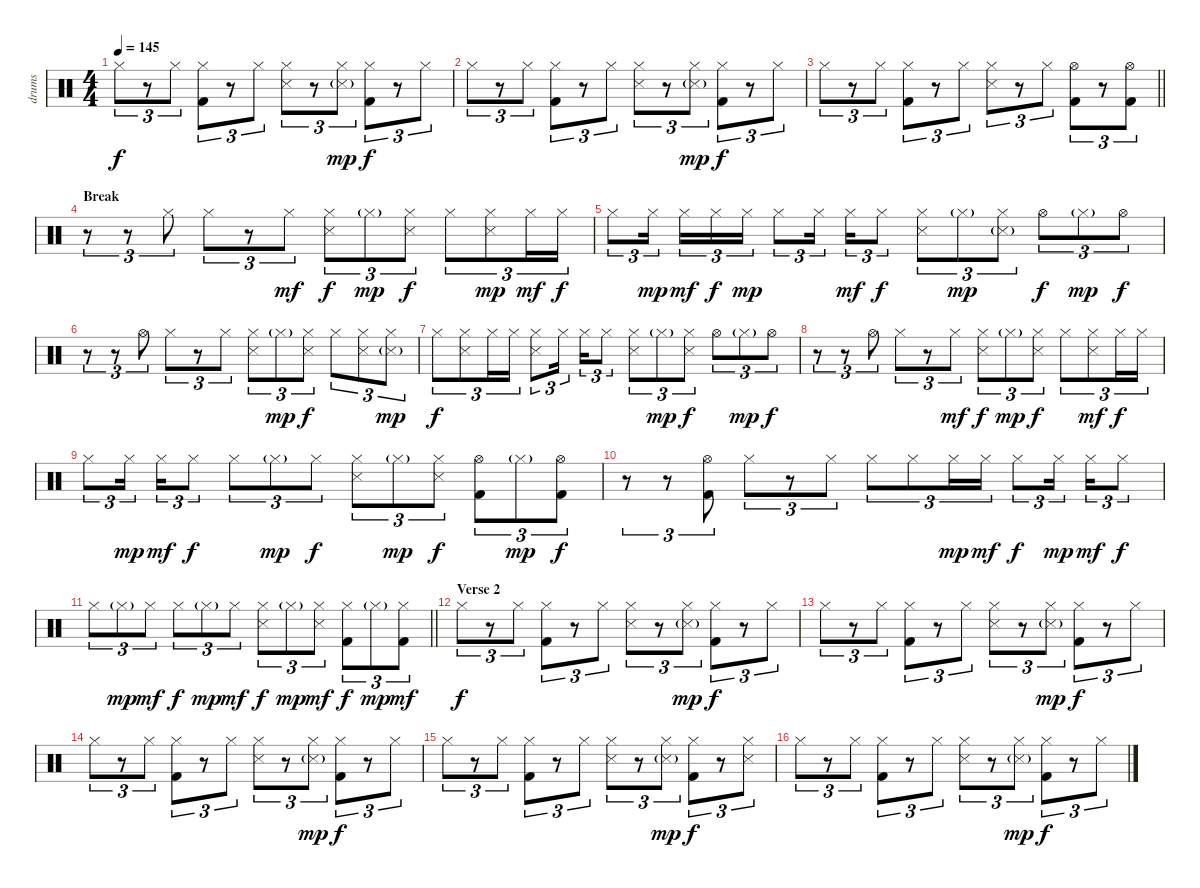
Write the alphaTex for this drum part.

\track ("drums" "drums") {instrument percussion}
\staff {score}
\articulation defaults
\ts (4 4)
\tempo 145
\clef neutral
\ks c "Hi-Hat (closed)".8{tu (3 2) dy f}
r.8{tu (3 2)} "Hi-Hat (closed)".8{tu (3 2)} ("Hi-Hat (closed)" "Kick (hit) 2").8{tu (3 2)} r.8{tu (3 2)} "Hi-Hat (closed)".8{tu (3 2)} ("Hi-Hat (closed)" "Snare (side stick) 3").8{tu (3 2)} r.8{tu (3 2)} ("Hi-Hat (closed)" "Snare (side stick) 3"{g}).8{tu (3 2) dy mp} ("Hi-Hat (closed)" "Kick (hit) 2").8{tu (3 2) dy f} r.8{tu (3 2)} "Hi-Hat (closed)".8{tu (3 2)} |
"Hi-Hat (closed)".8{tu (3 2)} r.8{tu (3 2)} "Hi-Hat (closed)".8{tu (3 2)} ("Hi-Hat (closed)" "Kick (hit) 2").8{tu (3 2)} r.8{tu (3 2)} "Hi-Hat (closed)".8{tu (3 2)} ("Hi-Hat (closed)" "Snare (side stick) 3").8{tu (3 2)} r.8{tu (3 2)} ("Hi-Hat (closed)" "Snare (side stick) 3"{g}).8{tu (3 2) dy mp} ("Hi-Hat (closed)" "Kick (hit) 2").8{tu (3 2) dy f} r.8{tu (3 2)} "Hi-Hat (closed)".8{tu (3 2)} |
\barLineRight lightlight "Hi-Hat (closed)".8{tu (3 2)}
r.8{tu (3 2)} "Hi-Hat (closed)".8{tu (3 2)} ("Hi-Hat (closed)" "Kick (hit) 2").8{tu (3 2)} r.8{tu (3 2)} "Hi-Hat (closed)".8{tu (3 2)} ("Hi-Hat (closed)" "Snare (side stick) 3").8{tu (3 2)} r.8{tu (3 2)} "Hi-Hat (closed)".8{tu (3 2)} ("Hi-Hat (open)" "Kick (hit) 2").8{tu (3 2)} r.8{tu (3 2)} ("Hi-Hat (open)" "Kick (hit) 2").8{tu (3 2)} |
\section ("" "Break")
r.8{tu (3 2)} r.8{tu (3 2)} "Hi-Hat (closed)".8{tu (3 2)} "Hi-Hat (closed)".8{tu (3 2)} r.8{tu (3 2)} "Hi-Hat (closed)".8{tu (3 2) dy mf} ("Hi-Hat (closed)" "Snare (side stick) 3").8{tu (3 2) dy f} "Hi-Hat (closed)"{g}.8{tu (3 2) dy mp} ("Hi-Hat (closed)" "Snare (side stick) 3").8{tu (3 2) dy f} "Hi-Hat (closed)".8{tu (3 2)} ("Hi-Hat (closed)" "Snare (side stick) 3").8{tu (3 2) dy mp} "Hi-Hat (closed)".16{tu (3 2) dy mf} "Hi-Hat (closed)".16{tu (3 2) dy f} |
"Hi-Hat (closed)".8{tu (3 2)} "Hi-Hat (closed)".16{tu (3 2) dy mp} "Hi-Hat (closed)".16{tu (3 2) dy mf} "Hi-Hat (closed)".16{tu (3 2) dy f} "Hi-Hat (closed)".16{tu (3 2) dy mp} "Hi-Hat (closed)".8{tu (3 2)} "Hi-Hat (closed)".16{tu (3 2)} "Hi-Hat (closed)".16{tu (3 2) dy mf} "Hi-Hat (closed)".8{tu (3 2) dy f} ("Hi-Hat (closed)" "Snare (side stick) 3").8{tu (3 2)} "Hi-Hat (closed)"{g}.8{tu (3 2) dy mp} ("Hi-Hat (closed)" "Snare (side stick) 3"{g}).8{tu (3 2)} "Hi-Hat (open)".8{tu (3 2) dy f} "Hi-Hat (closed)"{g}.8{tu (3 2) dy mp} "Hi-Hat (open)".8{tu (3 2) dy f} |
r.8{tu (3 2)} r.8{tu (3 2)} "Hi-Hat (open)".8{tu (3 2)} "Hi-Hat (closed)".8{tu (3 2)} r.8{tu (3 2)} "Hi-Hat (closed)".8{tu (3 2)} ("Hi-Hat (closed)" "Snare (side stick) 3").8{tu (3 2)} "Hi-Hat (closed)"{g}.8{tu (3 2) dy mp} ("Hi-Hat (closed)" "Snare (side stick) 3").8{tu (3 2) dy f} "Hi-Hat (closed)".8{tu (3 2)} ("Hi-Hat (closed)" "Snare (side stick) 3").8{tu (3 2)} ("Hi-Hat (closed)" "Snare (side stick) 3"{g}).8{tu (3 2) dy mp} |
"Hi-Hat (closed)".8{tu (3 2) dy f} ("Hi-Hat (closed)" "Snare (side stick) 3").8{tu (3 2)} "Hi-Hat (closed)".16{tu (3 2)} "Hi-Hat (closed)".16{tu (3 2)} ("Hi-Hat (closed)" "Snare (side stick) 3").8{tu (3 2)} "Hi-Hat (closed)".16{tu (3 2)} "Hi-Hat (closed)".16{tu (3 2)} "Hi-Hat (closed)".8{tu (3 2)} ("Hi-Hat (closed)" "Snare (side stick) 3").8{tu (3 2)} "Hi-Hat (closed)"{g}.8{tu (3 2) dy mp} ("Hi-Hat (closed)" "Snare (side stick) 3").8{tu (3 2) dy f} "Hi-Hat (open)".8{tu (3 2)} "Hi-Hat (closed)"{g}.8{tu (3 2) dy mp} "Hi-Hat (open)".8{tu (3 2) dy f} |
r.8{tu (3 2)} r.8{tu (3 2)} "Hi-Hat (open)".8{tu (3 2)} "Hi-Hat (closed)".8{tu (3 2)} r.8{tu (3 2)} "Hi-Hat (closed)".8{tu (3 2) dy mf} ("Hi-Hat (closed)" "Snare (side stick) 3").8{tu (3 2) dy f} "Hi-Hat (closed)"{g}.8{tu (3 2) dy mp} ("Hi-Hat (closed)" "Snare (side stick) 3").8{tu (3 2) dy f} "Hi-Hat (closed)".8{tu (3 2)} ("Hi-Hat (closed)" "Snare (side stick) 3").8{tu (3 2) dy mf} "Hi-Hat (closed)".16{tu (3 2) dy f} "Hi-Hat (closed)".16{tu (3 2)} |
"Hi-Hat (closed)".8{tu (3 2)} "Hi-Hat (closed)".16{tu (3 2) dy mp} "Hi-Hat (closed)".16{tu (3 2) dy mf} "Hi-Hat (closed)".8{tu (3 2) dy f} "Hi-Hat (closed)".8{tu (3 2)} "Hi-Hat (closed)"{g}.8{tu (3 2) dy mp} "Hi-Hat (closed)".8{tu (3 2) dy f} ("Hi-Hat (closed)" "Snare (side stick) 3").8{tu (3 2)} "Hi-Hat (closed)"{g}.8{tu (3 2) dy mp} ("Hi-Hat (closed)" "Snare (side stick) 3").8{tu (3 2) dy f} ("Hi-Hat (open)" "Kick (hit) 2").8{tu (3 2)} "Hi-Hat (closed)"{g}.8{tu (3 2) dy mp} ("Hi-Hat (open)" "Kick (hit) 2").8{tu (3 2) dy f} |
r.8{tu (3 2)} r.8{tu (3 2)} ("Hi-Hat (open)" "Kick (hit) 2").8{tu (3 2)} "Hi-Hat (closed)".8{tu (3 2)} r.8{tu (3 2)} "Hi-Hat (closed)".8{tu (3 2)} "Hi-Hat (closed)".8{tu (3 2)} "Hi-Hat (closed)".8{tu (3 2)} "Hi-Hat (closed)".16{tu (3 2) dy mp} "Hi-Hat (closed)".16{tu (3 2) dy mf} "Hi-Hat (closed)".8{tu (3 2) dy f} "Hi-Hat (closed)".16{tu (3 2) dy mp} "Hi-Hat (closed)".16{tu (3 2) dy mf} "Hi-Hat (closed)".8{tu (3 2) dy f} |
\barLineRight lightlight "Hi-Hat (closed)".8{tu (3 2)} "Hi-Hat (closed)"{g}.8{tu (3 2) dy mp} "Hi-Hat (closed)".8{tu (3 2) dy mf} "Hi-Hat (closed)".8{tu (3 2) dy f} "Hi-Hat (closed)"{g}.8{tu (3 2) dy mp} "Hi-Hat (closed)".8{tu (3 2) dy mf}
("Hi-Hat (closed)" "Snare (side stick) 3").8{tu (3 2) dy f} "Hi-Hat (closed)"{g}.8{tu (3 2) dy mp} ("Hi-Hat (closed)" "Snare (side stick) 3").8{tu (3 2) dy mf} ("Hi-Hat (closed)" "Kick (hit) 2").8{tu (3 2) dy f} "Hi-Hat (closed)"{g}.8{tu (3 2) dy mp} ("Hi-Hat (closed)" "Kick (hit) 2").8{tu (3 2) dy mf} |
\section ("" "Verse 2")
"Hi-Hat (closed)".8{tu (3 2) dy f} r.8{tu (3 2)} "Hi-Hat (closed)".8{tu (3 2)} ("Hi-Hat (closed)" "Kick (hit) 2").8{tu (3 2)} r.8{tu (3 2)} "Hi-Hat (closed)".8{tu (3 2)} ("Hi-Hat (closed)" "Snare (side stick) 3").8{tu (3 2)} r.8{tu (3 2)} ("Hi-Hat (closed)" "Snare (side stick) 3"{g}).8{tu (3 2) dy mp} ("Hi-Hat (closed)" "Kick (hit) 2").8{tu (3 2) dy f} r.8{tu (3 2)} "Hi-Hat (closed)".8{tu (3 2)} |
"Hi-Hat (closed)".8{tu (3 2)} r.8{tu (3 2)} "Hi-Hat (closed)".8{tu (3 2)} ("Hi-Hat (closed)" "Kick (hit) 2").8{tu (3 2)} r.8{tu (3 2)} "Hi-Hat (closed)".8{tu (3 2)} ("Hi-Hat (closed)" "Snare (side stick) 3").8{tu (3 2)} r.8{tu (3 2)} ("Hi-Hat (closed)" "Snare (side stick) 3"{g}).8{tu (3 2) dy mp} ("Hi-Hat (closed)" "Kick (hit) 2").8{tu (3 2) dy f} r.8{tu (3 2)} "Hi-Hat (closed)".8{tu (3 2)} |
"Hi-Hat (closed)".8{tu (3 2)} r.8{tu (3 2)} "Hi-Hat (closed)".8{tu (3 2)} ("Hi-Hat (closed)" "Kick (hit) 2").8{tu (3 2)} r.8{tu (3 2)} "Hi-Hat (closed)".8{tu (3 2)} ("Hi-Hat (closed)" "Snare (side stick) 3").8{tu (3 2)} r.8{tu (3 2)} ("Hi-Hat (closed)" "Snare (side stick) 3"{g}).8{tu (3 2) dy mp} ("Hi-Hat (closed)" "Kick (hit) 2").8{tu (3 2) dy f} r.8{tu (3 2)} "Hi-Hat (closed)".8{tu (3 2)} |
"Hi-Hat (closed)".8{tu (3 2)} r.8{tu (3 2)} "Hi-Hat (closed)".8{tu (3 2)} ("Hi-Hat (closed)" "Kick (hit) 2").8{tu (3 2)} r.8{tu (3 2)} "Hi-Hat (closed)".8{tu (3 2)} ("Hi-Hat (closed)" "Snare (side stick) 3").8{tu (3 2)} r.8{tu (3 2)} ("Hi-Hat (closed)" "Snare (side stick) 3"{g}).8{tu (3 2) dy mp} ("Hi-Hat (closed)" "Kick (hit) 2").8{tu (3 2) dy f} r.8{tu (3 2)} ("Hi-Hat (closed)" "Snare (side stick) 3").8{tu (3 2)} |
"Hi-Hat (closed)".8{tu (3 2)} r.8{tu (3 2)} "Hi-Hat (closed)".8{tu (3 2)} ("Hi-Hat (closed)" "Kick (hit) 2").8{tu (3 2)} r.8{tu (3 2)} "Hi-Hat (closed)".8{tu (3 2)} ("Hi-Hat (closed)" "Snare (side stick) 3").8{tu (3 2)} r.8{tu (3 2)} ("Hi-Hat (closed)" "Snare (side stick) 3"{g}).8{tu (3 2) dy mp} ("Hi-Hat (closed)" "Kick (hit) 2").8{tu (3 2) dy f} r.8{tu (3 2)} "Hi-Hat (closed)".8{tu (3 2)}
